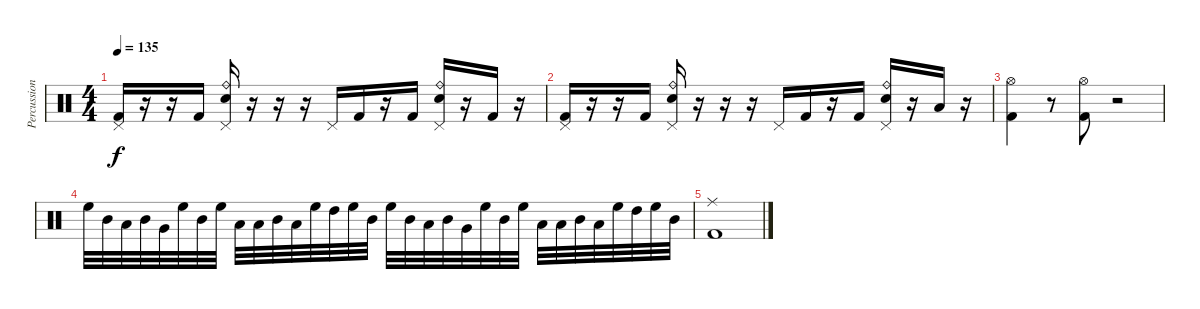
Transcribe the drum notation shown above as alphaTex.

\track ("Percussion" "Percussion") {instrument percussion}
\staff {score}
\articulation defaults
\ts (4 4)
\tempo 135
\clef neutral
\ks c
("Pedal Hi-Hat (hit)" "Kick (hit) 2").16{dy f} r.16 r.16 "Kick (hit) 2".16 ("Ride (bell)" "Electric Snare (hit)" "Pedal Hi-Hat (hit)").16 r.16 r.16 r.16 "Pedal Hi-Hat (hit)".16 "Kick (hit) 2".16 r.16 "Kick (hit) 2".16 ("Ride (bell)" "Electric Snare (hit)" "Pedal Hi-Hat (hit)").16 r.16 "Kick (hit) 2".16 r.16 |
("Pedal Hi-Hat (hit)" "Kick (hit) 2").16 r.16 r.16 "Kick (hit) 2".16 ("Ride (bell)" "Electric Snare (hit)" "Pedal Hi-Hat (hit)").16 r.16 r.16 r.16 "Pedal Hi-Hat (hit)".16 "Kick (hit) 2".16 r.16 "Kick (hit) 2".16 ("Ride (bell)" "Electric Snare (hit)" "Pedal Hi-Hat (hit)").16 r.16 "Low Tom (hit)".16 r.16 |
("Hi-Hat (open)" "Kick (hit) 2").4 r.8 ("Hi-Hat (open)" "Kick (hit) 2").8 r.2 |
"High Floor Tom (hit)".32 "Mid Tom (hit)".32 "Low Floor Tom (hit)".32 "Mid Tom (hit)".32 "Very Low Tom (hit)".32 "High Floor Tom (hit)".32 "Mid Tom (hit)".32 "High Floor Tom (hit)".32 "Low Tom (hit)".32 "Low Tom (hit)".32 "Mid Tom (hit)".32 "Low Floor Tom (hit)".32 "High Floor Tom (hit)".32 "High Tom (hit)".32 "High Floor Tom (hit)".32 "Mid Tom (hit)".32 "High Floor Tom (hit)".32 "Mid Tom (hit)".32 "Low Floor Tom (hit)".32 "Mid Tom (hit)".32 "Very Low Tom (hit)".32 "High Floor Tom (hit)".32 "Mid Tom (hit)".32 "High Floor Tom (hit)".32 "Low Tom (hit)".32 "Low Tom (hit)".32 "Mid Tom (hit)".32 "Low Floor Tom (hit)".32 "High Floor Tom (hit)".32 "High Tom (hit)".32 "High Floor Tom (hit)".32 "Mid Tom (hit)".32 |
("Ride (middle)" "Kick (hit) 2").1
